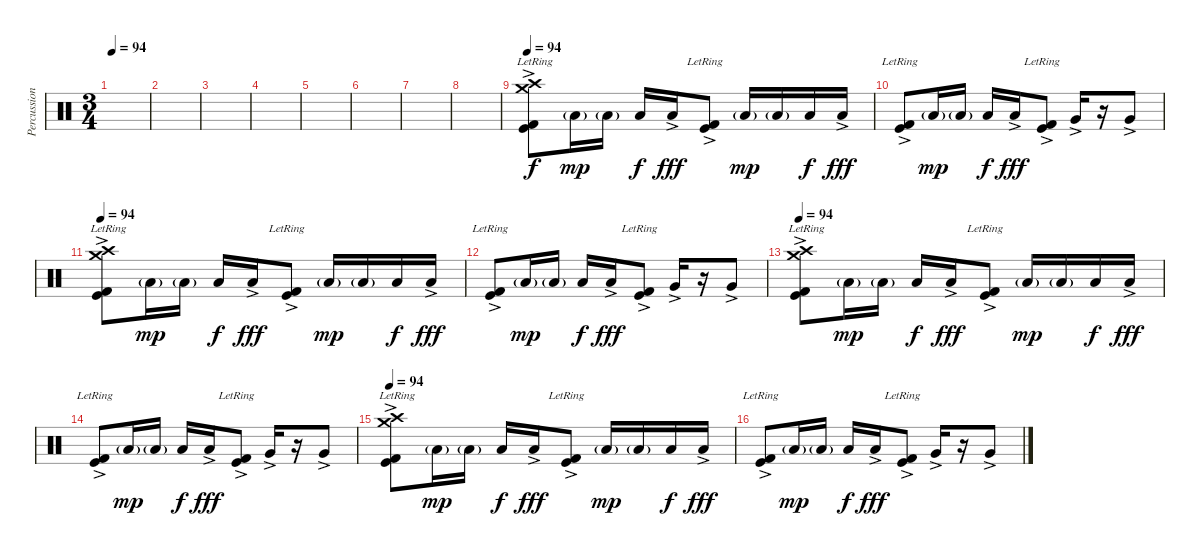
\track ("Percussion" "Percussion") {instrument percussion}
\staff {score}
\articulation defaults
\ts (3 4)
\tempo 94
\clef neutral
\ks c
|
|
|
|
|
|
|
|
\tempo 94
("Crash high (hit)" "Crash medium (hit)" "Kick (hit)" "Kick (hit) 2"{ac lr}).8 "Low Tom (hit)"{g}.16{dy mp} "Low Tom (hit)"{g}.16 "Low Tom (hit)".16{dy f} "Low Tom (hit)"{ac}.16{dy fff} ("Kick (hit)" "Kick (hit) 2"{ac lr}).8 "Low Tom (hit)"{g}.16{dy mp} "Low Tom (hit)"{g}.16 "Low Tom (hit)".16{dy f} "Low Tom (hit)"{ac}.16{dy fff} |
("Kick (hit)" "Kick (hit) 2"{ac lr}).8 "Low Tom (hit)"{g}.16{dy mp} "Low Tom (hit)"{g}.16 "Low Tom (hit)".16{dy f} "Low Tom (hit)"{ac}.16{dy fff} ("Kick (hit)" "Kick (hit) 2"{ac lr}).8 "Very Low Tom (hit)"{ac}.16 r.16 "Very Low Tom (hit)"{ac}.8 |
\tempo 94
("Crash high (hit)" "Crash medium (hit)" "Kick (hit)" "Kick (hit) 2"{ac lr}).8 "Low Tom (hit)"{g}.16{dy mp} "Low Tom (hit)"{g}.16 "Low Tom (hit)".16{dy f} "Low Tom (hit)"{ac}.16{dy fff} ("Kick (hit)" "Kick (hit) 2"{ac lr}).8 "Low Tom (hit)"{g}.16{dy mp} "Low Tom (hit)"{g}.16 "Low Tom (hit)".16{dy f} "Low Tom (hit)"{ac}.16{dy fff} |
("Kick (hit)" "Kick (hit) 2"{ac lr}).8 "Low Tom (hit)"{g}.16{dy mp} "Low Tom (hit)"{g}.16 "Low Tom (hit)".16{dy f} "Low Tom (hit)"{ac}.16{dy fff} ("Kick (hit)" "Kick (hit) 2"{ac lr}).8 "Very Low Tom (hit)"{ac}.16 r.16 "Very Low Tom (hit)"{ac}.8 |
\tempo 94
("Crash high (hit)" "Crash medium (hit)" "Kick (hit)" "Kick (hit) 2"{ac lr}).8 "Low Tom (hit)"{g}.16{dy mp} "Low Tom (hit)"{g}.16 "Low Tom (hit)".16{dy f} "Low Tom (hit)"{ac}.16{dy fff} ("Kick (hit)" "Kick (hit) 2"{ac lr}).8 "Low Tom (hit)"{g}.16{dy mp} "Low Tom (hit)"{g}.16 "Low Tom (hit)".16{dy f} "Low Tom (hit)"{ac}.16{dy fff} |
("Kick (hit)" "Kick (hit) 2"{ac lr}).8 "Low Tom (hit)"{g}.16{dy mp} "Low Tom (hit)"{g}.16 "Low Tom (hit)".16{dy f} "Low Tom (hit)"{ac}.16{dy fff} ("Kick (hit)" "Kick (hit) 2"{ac lr}).8 "Very Low Tom (hit)"{ac}.16 r.16 "Very Low Tom (hit)"{ac}.8 |
\tempo 94
("Crash high (hit)" "Crash medium (hit)" "Kick (hit)" "Kick (hit) 2"{ac lr}).8 "Low Tom (hit)"{g}.16{dy mp} "Low Tom (hit)"{g}.16 "Low Tom (hit)".16{dy f} "Low Tom (hit)"{ac}.16{dy fff} ("Kick (hit)" "Kick (hit) 2"{ac lr}).8 "Low Tom (hit)"{g}.16{dy mp} "Low Tom (hit)"{g}.16 "Low Tom (hit)".16{dy f} "Low Tom (hit)"{ac}.16{dy fff} |
("Kick (hit)" "Kick (hit) 2"{ac lr}).8 "Low Tom (hit)"{g}.16{dy mp} "Low Tom (hit)"{g}.16 "Low Tom (hit)".16{dy f} "Low Tom (hit)"{ac}.16{dy fff} ("Kick (hit)" "Kick (hit) 2"{ac lr}).8 "Very Low Tom (hit)"{ac}.16 r.16 "Very Low Tom (hit)"{ac}.8
